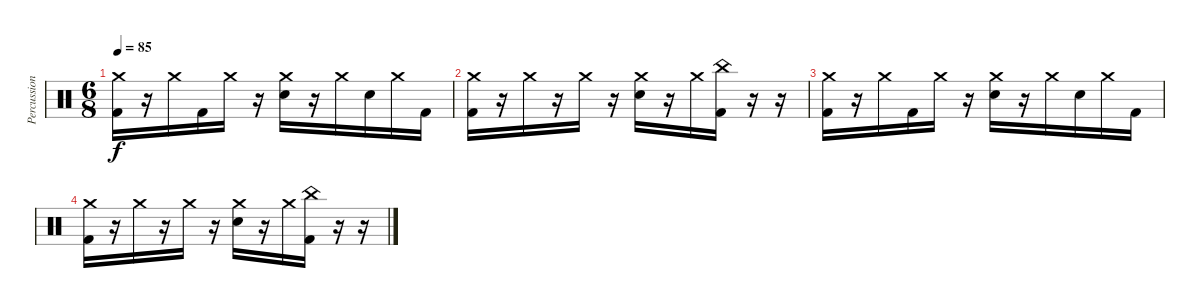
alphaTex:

\track ("Percussion" "Percussion") {instrument percussion}
\staff {score}
\articulation defaults
\ts (6 8)
\tempo 85
\clef neutral
\ks c
("Crash medium (hit)" "Kick (hit) 2").16{dy f} r.16 "Crash medium (hit)".16 "Kick (hit) 2".16 "Crash medium (hit)".16 r.16 ("Crash medium (hit)" "Electric Snare (hit)").16 r.16 "Crash medium (hit)".16 "Electric Snare (hit)".16 "Crash medium (hit)".16 "Kick (hit) 2".16 |
("Crash medium (hit)" "Kick (hit) 2").16{volume 0} r.16 "Crash medium (hit)".16 r.16 "Crash medium (hit)".16 r.16 ("Crash medium (hit)" "Electric Snare (hit)").16 r.16 "Crash medium (hit)".16 ("China (hit)" "Kick (hit) 2").16 r.16 r.16 |
("Crash medium (hit)" "Kick (hit) 2").16 r.16 "Crash medium (hit)".16 "Kick (hit) 2".16 "Crash medium (hit)".16 r.16 ("Crash medium (hit)" "Electric Snare (hit)").16 r.16 "Crash medium (hit)".16 "Electric Snare (hit)".16 "Crash medium (hit)".16 "Kick (hit) 2".16 |
("Crash medium (hit)" "Kick (hit) 2").16 r.16 "Crash medium (hit)".16 r.16 "Crash medium (hit)".16 r.16 ("Crash medium (hit)" "Electric Snare (hit)").16 r.16 "Crash medium (hit)".16 ("China (hit)" "Kick (hit) 2").16 r.16 r.16
